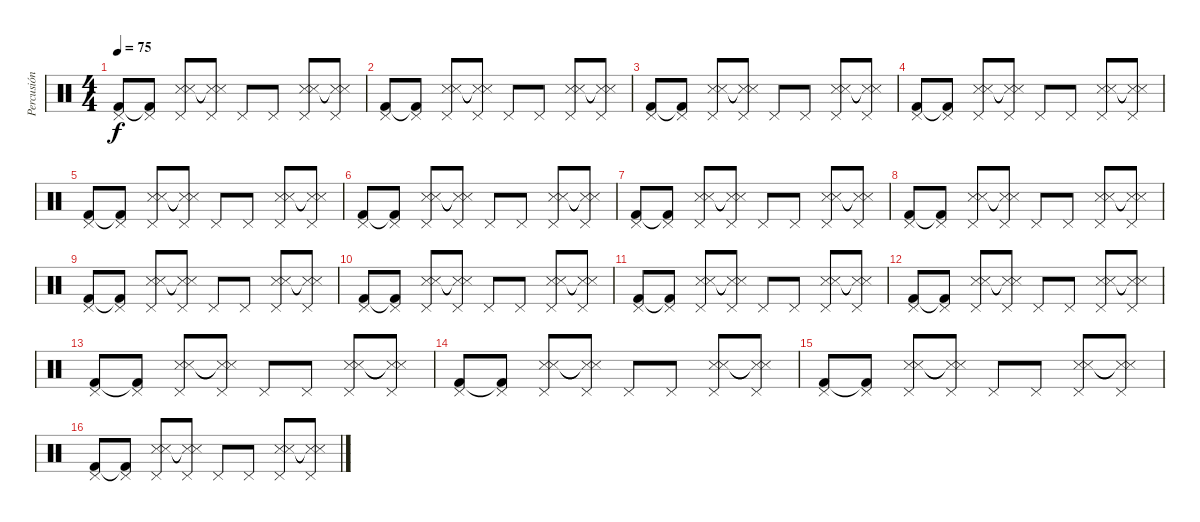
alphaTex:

\track ("Percusión" "Percusión") {instrument percussion}
\staff {score}
\articulation defaults
\ts (4 4)
\tempo 75
\clef neutral
\ks c
("Kick (hit) 2" "Pedal Hi-Hat (hit)").8{dy f} ("Kick (hit) 2"{t} "Pedal Hi-Hat (hit)").8 ("Metronome (hit)" "Snare (side stick) 3" "Pedal Hi-Hat (hit)").8 ("Metronome (hit)"{t} "Snare (side stick) 3"{t} "Pedal Hi-Hat (hit)").8 "Pedal Hi-Hat (hit)".8 "Pedal Hi-Hat (hit)".8 ("Metronome (hit)" "Snare (side stick) 3" "Pedal Hi-Hat (hit)").8 ("Metronome (hit)"{t} "Snare (side stick) 3"{t} "Pedal Hi-Hat (hit)").8 |
("Kick (hit) 2" "Pedal Hi-Hat (hit)").8 ("Kick (hit) 2"{t} "Pedal Hi-Hat (hit)").8 ("Metronome (hit)" "Snare (side stick) 3" "Pedal Hi-Hat (hit)").8 ("Metronome (hit)"{t} "Snare (side stick) 3"{t} "Pedal Hi-Hat (hit)").8 "Pedal Hi-Hat (hit)".8 "Pedal Hi-Hat (hit)".8 ("Metronome (hit)" "Snare (side stick) 3" "Pedal Hi-Hat (hit)").8 ("Metronome (hit)"{t} "Snare (side stick) 3"{t} "Pedal Hi-Hat (hit)").8 |
("Kick (hit) 2" "Pedal Hi-Hat (hit)").8 ("Kick (hit) 2"{t} "Pedal Hi-Hat (hit)").8 ("Metronome (hit)" "Snare (side stick) 3" "Pedal Hi-Hat (hit)").8 ("Metronome (hit)"{t} "Snare (side stick) 3"{t} "Pedal Hi-Hat (hit)").8 "Pedal Hi-Hat (hit)".8 "Pedal Hi-Hat (hit)".8 ("Metronome (hit)" "Snare (side stick) 3" "Pedal Hi-Hat (hit)").8 ("Metronome (hit)"{t} "Snare (side stick) 3"{t} "Pedal Hi-Hat (hit)").8 |
("Kick (hit) 2" "Pedal Hi-Hat (hit)").8 ("Kick (hit) 2"{t} "Pedal Hi-Hat (hit)").8 ("Metronome (hit)" "Snare (side stick) 3" "Pedal Hi-Hat (hit)").8 ("Metronome (hit)"{t} "Snare (side stick) 3"{t} "Pedal Hi-Hat (hit)").8 "Pedal Hi-Hat (hit)".8 "Pedal Hi-Hat (hit)".8 ("Metronome (hit)" "Snare (side stick) 3" "Pedal Hi-Hat (hit)").8 ("Metronome (hit)"{t} "Snare (side stick) 3"{t} "Pedal Hi-Hat (hit)").8 |
("Kick (hit) 2" "Pedal Hi-Hat (hit)").8 ("Kick (hit) 2"{t} "Pedal Hi-Hat (hit)").8 ("Metronome (hit)" "Snare (side stick) 3" "Pedal Hi-Hat (hit)").8 ("Metronome (hit)"{t} "Snare (side stick) 3"{t} "Pedal Hi-Hat (hit)").8 "Pedal Hi-Hat (hit)".8 "Pedal Hi-Hat (hit)".8 ("Metronome (hit)" "Snare (side stick) 3" "Pedal Hi-Hat (hit)").8 ("Metronome (hit)"{t} "Snare (side stick) 3"{t} "Pedal Hi-Hat (hit)").8 |
("Kick (hit) 2" "Pedal Hi-Hat (hit)").8 ("Kick (hit) 2"{t} "Pedal Hi-Hat (hit)").8 ("Metronome (hit)" "Snare (side stick) 3" "Pedal Hi-Hat (hit)").8 ("Metronome (hit)"{t} "Snare (side stick) 3"{t} "Pedal Hi-Hat (hit)").8 "Pedal Hi-Hat (hit)".8 "Pedal Hi-Hat (hit)".8 ("Metronome (hit)" "Snare (side stick) 3" "Pedal Hi-Hat (hit)").8 ("Metronome (hit)"{t} "Snare (side stick) 3"{t} "Pedal Hi-Hat (hit)").8 |
("Kick (hit) 2" "Pedal Hi-Hat (hit)").8 ("Kick (hit) 2"{t} "Pedal Hi-Hat (hit)").8 ("Metronome (hit)" "Snare (side stick) 3" "Pedal Hi-Hat (hit)").8 ("Metronome (hit)"{t} "Snare (side stick) 3"{t} "Pedal Hi-Hat (hit)").8 "Pedal Hi-Hat (hit)".8 "Pedal Hi-Hat (hit)".8 ("Metronome (hit)" "Snare (side stick) 3" "Pedal Hi-Hat (hit)").8 ("Metronome (hit)"{t} "Snare (side stick) 3"{t} "Pedal Hi-Hat (hit)").8 |
("Kick (hit) 2" "Pedal Hi-Hat (hit)").8 ("Kick (hit) 2"{t} "Pedal Hi-Hat (hit)").8 ("Metronome (hit)" "Snare (side stick) 3" "Pedal Hi-Hat (hit)").8 ("Metronome (hit)"{t} "Snare (side stick) 3"{t} "Pedal Hi-Hat (hit)").8 "Pedal Hi-Hat (hit)".8 "Pedal Hi-Hat (hit)".8 ("Metronome (hit)" "Snare (side stick) 3" "Pedal Hi-Hat (hit)").8 ("Metronome (hit)"{t} "Snare (side stick) 3"{t} "Pedal Hi-Hat (hit)").8 |
("Kick (hit) 2" "Pedal Hi-Hat (hit)").8 ("Kick (hit) 2"{t} "Pedal Hi-Hat (hit)").8 ("Metronome (hit)" "Snare (side stick) 3" "Pedal Hi-Hat (hit)").8 ("Metronome (hit)"{t} "Snare (side stick) 3"{t} "Pedal Hi-Hat (hit)").8 "Pedal Hi-Hat (hit)".8 "Pedal Hi-Hat (hit)".8 ("Metronome (hit)" "Snare (side stick) 3" "Pedal Hi-Hat (hit)").8 ("Metronome (hit)"{t} "Snare (side stick) 3"{t} "Pedal Hi-Hat (hit)").8 |
("Kick (hit) 2" "Pedal Hi-Hat (hit)").8 ("Kick (hit) 2"{t} "Pedal Hi-Hat (hit)").8 ("Metronome (hit)" "Snare (side stick) 3" "Pedal Hi-Hat (hit)").8 ("Metronome (hit)"{t} "Snare (side stick) 3"{t} "Pedal Hi-Hat (hit)").8 "Pedal Hi-Hat (hit)".8 "Pedal Hi-Hat (hit)".8 ("Metronome (hit)" "Snare (side stick) 3" "Pedal Hi-Hat (hit)").8 ("Metronome (hit)"{t} "Snare (side stick) 3"{t} "Pedal Hi-Hat (hit)").8 |
("Kick (hit) 2" "Pedal Hi-Hat (hit)").8 ("Kick (hit) 2"{t} "Pedal Hi-Hat (hit)").8 ("Metronome (hit)" "Snare (side stick) 3" "Pedal Hi-Hat (hit)").8 ("Metronome (hit)"{t} "Snare (side stick) 3"{t} "Pedal Hi-Hat (hit)").8 "Pedal Hi-Hat (hit)".8 "Pedal Hi-Hat (hit)".8 ("Metronome (hit)" "Snare (side stick) 3" "Pedal Hi-Hat (hit)").8 ("Metronome (hit)"{t} "Snare (side stick) 3"{t} "Pedal Hi-Hat (hit)").8 |
("Kick (hit) 2" "Pedal Hi-Hat (hit)").8 ("Kick (hit) 2"{t} "Pedal Hi-Hat (hit)").8 ("Metronome (hit)" "Snare (side stick) 3" "Pedal Hi-Hat (hit)").8 ("Metronome (hit)"{t} "Snare (side stick) 3"{t} "Pedal Hi-Hat (hit)").8 "Pedal Hi-Hat (hit)".8 "Pedal Hi-Hat (hit)".8 ("Metronome (hit)" "Snare (side stick) 3" "Pedal Hi-Hat (hit)").8 ("Metronome (hit)"{t} "Snare (side stick) 3"{t} "Pedal Hi-Hat (hit)").8 |
("Kick (hit) 2" "Pedal Hi-Hat (hit)").8 ("Kick (hit) 2"{t} "Pedal Hi-Hat (hit)").8 ("Metronome (hit)" "Snare (side stick) 3" "Pedal Hi-Hat (hit)").8 ("Metronome (hit)"{t} "Snare (side stick) 3"{t} "Pedal Hi-Hat (hit)").8 "Pedal Hi-Hat (hit)".8 "Pedal Hi-Hat (hit)".8 ("Metronome (hit)" "Snare (side stick) 3" "Pedal Hi-Hat (hit)").8 ("Metronome (hit)"{t} "Snare (side stick) 3"{t} "Pedal Hi-Hat (hit)").8 |
("Kick (hit) 2" "Pedal Hi-Hat (hit)").8 ("Kick (hit) 2"{t} "Pedal Hi-Hat (hit)").8 ("Metronome (hit)" "Snare (side stick) 3" "Pedal Hi-Hat (hit)").8 ("Metronome (hit)"{t} "Snare (side stick) 3"{t} "Pedal Hi-Hat (hit)").8 "Pedal Hi-Hat (hit)".8 "Pedal Hi-Hat (hit)".8 ("Metronome (hit)" "Snare (side stick) 3" "Pedal Hi-Hat (hit)").8 ("Metronome (hit)"{t} "Snare (side stick) 3"{t} "Pedal Hi-Hat (hit)").8 |
("Kick (hit) 2" "Pedal Hi-Hat (hit)").8 ("Kick (hit) 2"{t} "Pedal Hi-Hat (hit)").8 ("Metronome (hit)" "Snare (side stick) 3" "Pedal Hi-Hat (hit)").8 ("Metronome (hit)"{t} "Snare (side stick) 3"{t} "Pedal Hi-Hat (hit)").8 "Pedal Hi-Hat (hit)".8 "Pedal Hi-Hat (hit)".8 ("Metronome (hit)" "Snare (side stick) 3" "Pedal Hi-Hat (hit)").8 ("Metronome (hit)"{t} "Snare (side stick) 3"{t} "Pedal Hi-Hat (hit)").8 |
("Kick (hit) 2" "Pedal Hi-Hat (hit)").8 ("Kick (hit) 2"{t} "Pedal Hi-Hat (hit)").8 ("Metronome (hit)" "Snare (side stick) 3" "Pedal Hi-Hat (hit)").8 ("Metronome (hit)"{t} "Snare (side stick) 3"{t} "Pedal Hi-Hat (hit)").8 "Pedal Hi-Hat (hit)".8 "Pedal Hi-Hat (hit)".8 ("Metronome (hit)" "Snare (side stick) 3" "Pedal Hi-Hat (hit)").8 ("Metronome (hit)"{t} "Snare (side stick) 3"{t} "Pedal Hi-Hat (hit)").8
